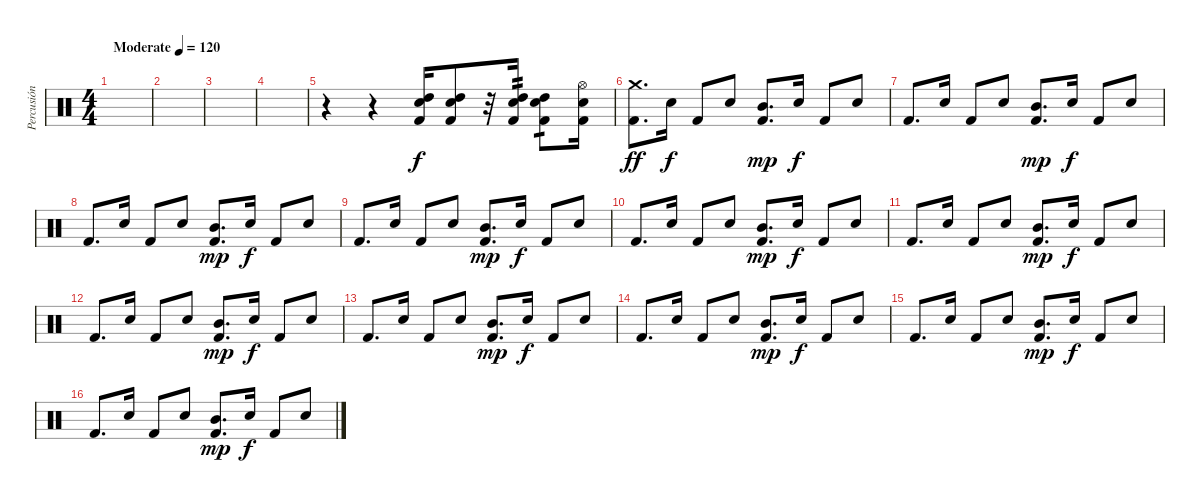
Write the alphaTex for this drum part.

\track ("Percusión" "Percusión") {instrument percussion}
\staff {score}
\articulation defaults
\ts (4 4)
\tempo (120 "Moderate")
\clef neutral
\ks c
|
|
|
|
r.4 r.4 ("High Tom (hit)" "Electric Snare (hit)" "Kick (hit) 2").16 ("High Tom (hit)" "Electric Snare (hit)" "Kick (hit) 2").8 r.32 ("High Tom (hit)" "Electric Snare (hit)" "Kick (hit) 2").16{tp 2} ("High Tom (hit)" "Electric Snare (hit)" "Kick (hit) 2").8{tp 1} ("Hi-Hat (open)" "Electric Snare (hit)" "Kick (hit) 2").16 |
("Kick (hit) 2" "Crash medium (hit)").8{d dy ff} "Electric Snare (hit)".16{dy f} "Kick (hit) 2".8 "Electric Snare (hit)".8 ("Kick (hit) 2" "Mid Tom (hit)").8{d dy mp} "Electric Snare (hit)".16{dy f} "Kick (hit) 2".8 "Electric Snare (hit)".8 |
"Kick (hit) 2".8{d} "Electric Snare (hit)".16 "Kick (hit) 2".8 "Electric Snare (hit)".8 ("Kick (hit) 2" "Mid Tom (hit)").8{d dy mp} "Electric Snare (hit)".16{dy f} "Kick (hit) 2".8 "Electric Snare (hit)".8 |
"Kick (hit) 2".8{d} "Electric Snare (hit)".16 "Kick (hit) 2".8 "Electric Snare (hit)".8 ("Kick (hit) 2" "Mid Tom (hit)").8{d dy mp} "Electric Snare (hit)".16{dy f} "Kick (hit) 2".8 "Electric Snare (hit)".8 |
"Kick (hit) 2".8{d} "Electric Snare (hit)".16 "Kick (hit) 2".8 "Electric Snare (hit)".8 ("Kick (hit) 2" "Mid Tom (hit)").8{d dy mp} "Electric Snare (hit)".16{dy f} "Kick (hit) 2".8 "Electric Snare (hit)".8 |
"Kick (hit) 2".8{d} "Electric Snare (hit)".16 "Kick (hit) 2".8 "Electric Snare (hit)".8 ("Kick (hit) 2" "Mid Tom (hit)").8{d dy mp} "Electric Snare (hit)".16{dy f} "Kick (hit) 2".8 "Electric Snare (hit)".8 |
"Kick (hit) 2".8{d} "Electric Snare (hit)".16 "Kick (hit) 2".8 "Electric Snare (hit)".8 ("Kick (hit) 2" "Mid Tom (hit)").8{d dy mp} "Electric Snare (hit)".16{dy f} "Kick (hit) 2".8 "Electric Snare (hit)".8 |
"Kick (hit) 2".8{d} "Electric Snare (hit)".16 "Kick (hit) 2".8 "Electric Snare (hit)".8 ("Kick (hit) 2" "Mid Tom (hit)").8{d dy mp} "Electric Snare (hit)".16{dy f} "Kick (hit) 2".8 "Electric Snare (hit)".8 |
"Kick (hit) 2".8{d} "Electric Snare (hit)".16 "Kick (hit) 2".8 "Electric Snare (hit)".8 ("Kick (hit) 2" "Mid Tom (hit)").8{d dy mp} "Electric Snare (hit)".16{dy f} "Kick (hit) 2".8 "Electric Snare (hit)".8 |
"Kick (hit) 2".8{d} "Electric Snare (hit)".16 "Kick (hit) 2".8 "Electric Snare (hit)".8 ("Kick (hit) 2" "Mid Tom (hit)").8{d dy mp} "Electric Snare (hit)".16{dy f} "Kick (hit) 2".8 "Electric Snare (hit)".8 |
"Kick (hit) 2".8{d} "Electric Snare (hit)".16 "Kick (hit) 2".8 "Electric Snare (hit)".8 ("Kick (hit) 2" "Mid Tom (hit)").8{d dy mp} "Electric Snare (hit)".16{dy f} "Kick (hit) 2".8 "Electric Snare (hit)".8 |
"Kick (hit) 2".8{d} "Electric Snare (hit)".16 "Kick (hit) 2".8 "Electric Snare (hit)".8 ("Kick (hit) 2" "Mid Tom (hit)").8{d dy mp} "Electric Snare (hit)".16{dy f} "Kick (hit) 2".8 "Electric Snare (hit)".8
